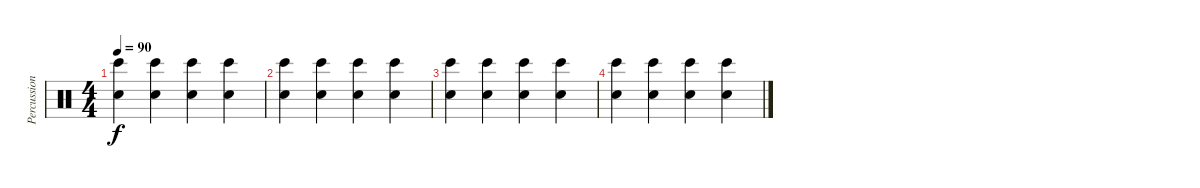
\track ("Percussion" "Percussion") {instrument percussion}
\staff {score}
\articulation defaults
\ts (4 4)
\tempo 90
\clef neutral
\ks c
("Hand Clap (hit)" "Bongo High (hit)").4{dy f} ("Hand Clap (hit)" "Bongo High (hit)").4 ("Hand Clap (hit)" "Bongo High (hit)").4 ("Hand Clap (hit)" "Bongo High (hit)").4 |
("Hand Clap (hit)" "Bongo High (hit)").4 ("Hand Clap (hit)" "Bongo High (hit)").4 ("Hand Clap (hit)" "Bongo High (hit)").4 ("Hand Clap (hit)" "Bongo High (hit)").4 |
("Hand Clap (hit)" "Bongo High (hit)").4 ("Hand Clap (hit)" "Bongo High (hit)").4 ("Hand Clap (hit)" "Bongo High (hit)").4 ("Hand Clap (hit)" "Bongo High (hit)").4 |
("Hand Clap (hit)" "Bongo High (hit)").4 ("Hand Clap (hit)" "Bongo High (hit)").4 ("Hand Clap (hit)" "Bongo High (hit)").4 ("Hand Clap (hit)" "Bongo High (hit)").4
